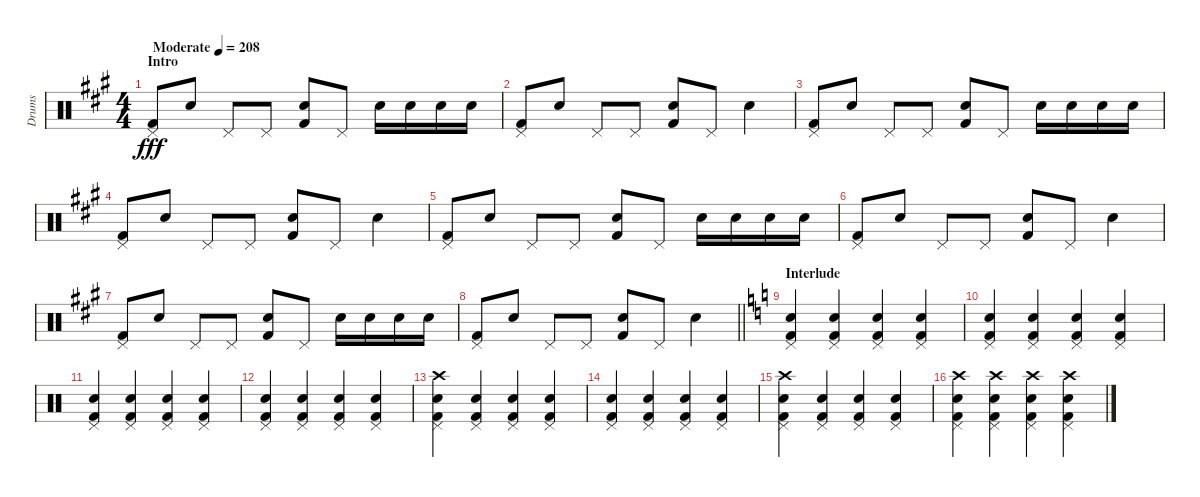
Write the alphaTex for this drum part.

\track ("Drums" "Drums") {instrument percussion}
\staff {score}
\articulation defaults
\ts (4 4)
\section ("" "Intro")
\tempo (208 "Moderate")
\clef neutral
\ks a
("Pedal Hi-Hat (hit)" "Kick (hit) 2").8{dy fff} "Snare (hit) 2".8 "Pedal Hi-Hat (hit)".8 "Pedal Hi-Hat (hit)".8 ("Snare (hit) 2" "Kick (hit) 2").8 "Pedal Hi-Hat (hit)".8 "Snare (hit) 2".16 "Snare (hit) 2".16 "Snare (hit) 2".16 "Snare (hit) 2".16 |
("Pedal Hi-Hat (hit)" "Kick (hit) 2").8 "Snare (hit) 2".8 "Pedal Hi-Hat (hit)".8 "Pedal Hi-Hat (hit)".8 ("Snare (hit) 2" "Kick (hit) 2").8 "Pedal Hi-Hat (hit)".8 "Snare (hit) 2".4 |
("Pedal Hi-Hat (hit)" "Kick (hit) 2").8 "Snare (hit) 2".8 "Pedal Hi-Hat (hit)".8 "Pedal Hi-Hat (hit)".8 ("Snare (hit) 2" "Kick (hit) 2").8 "Pedal Hi-Hat (hit)".8 "Snare (hit) 2".16 "Snare (hit) 2".16 "Snare (hit) 2".16 "Snare (hit) 2".16 |
("Pedal Hi-Hat (hit)" "Kick (hit) 2").8 "Snare (hit) 2".8 "Pedal Hi-Hat (hit)".8 "Pedal Hi-Hat (hit)".8 ("Snare (hit) 2" "Kick (hit) 2").8 "Pedal Hi-Hat (hit)".8 "Snare (hit) 2".4 |
("Pedal Hi-Hat (hit)" "Kick (hit) 2").8 "Snare (hit) 2".8 "Pedal Hi-Hat (hit)".8 "Pedal Hi-Hat (hit)".8 ("Snare (hit) 2" "Kick (hit) 2").8 "Pedal Hi-Hat (hit)".8 "Snare (hit) 2".16 "Snare (hit) 2".16 "Snare (hit) 2".16 "Snare (hit) 2".16 |
("Pedal Hi-Hat (hit)" "Kick (hit) 2").8 "Snare (hit) 2".8 "Pedal Hi-Hat (hit)".8 "Pedal Hi-Hat (hit)".8 ("Snare (hit) 2" "Kick (hit) 2").8 "Pedal Hi-Hat (hit)".8 "Snare (hit) 2".4 |
("Pedal Hi-Hat (hit)" "Kick (hit) 2").8 "Snare (hit) 2".8 "Pedal Hi-Hat (hit)".8 "Pedal Hi-Hat (hit)".8 ("Snare (hit) 2" "Kick (hit) 2").8 "Pedal Hi-Hat (hit)".8 "Snare (hit) 2".16 "Snare (hit) 2".16 "Snare (hit) 2".16 "Snare (hit) 2".16 |
\barLineRight lightlight
("Pedal Hi-Hat (hit)" "Kick (hit) 2").8 "Snare (hit) 2".8 "Pedal Hi-Hat (hit)".8 "Pedal Hi-Hat (hit)".8 ("Snare (hit) 2" "Kick (hit) 2").8 "Pedal Hi-Hat (hit)".8 "Snare (hit) 2".4 |
\section ("" "Interlude")
\ks c
("Pedal Hi-Hat (hit)" "Snare (hit) 2" "Kick (hit) 2").4 ("Pedal Hi-Hat (hit)" "Snare (hit) 2" "Kick (hit) 2").4 ("Pedal Hi-Hat (hit)" "Snare (hit) 2" "Kick (hit) 2").4 ("Pedal Hi-Hat (hit)" "Snare (hit) 2" "Kick (hit) 2").4 |
("Pedal Hi-Hat (hit)" "Snare (hit) 2" "Kick (hit) 2").4 ("Pedal Hi-Hat (hit)" "Snare (hit) 2" "Kick (hit) 2").4 ("Pedal Hi-Hat (hit)" "Snare (hit) 2" "Kick (hit) 2").4 ("Pedal Hi-Hat (hit)" "Snare (hit) 2" "Kick (hit) 2").4 |
("Pedal Hi-Hat (hit)" "Snare (hit) 2" "Kick (hit) 2").4 ("Pedal Hi-Hat (hit)" "Snare (hit) 2" "Kick (hit) 2").4 ("Pedal Hi-Hat (hit)" "Snare (hit) 2" "Kick (hit) 2").4 ("Pedal Hi-Hat (hit)" "Snare (hit) 2" "Kick (hit) 2").4 |
("Pedal Hi-Hat (hit)" "Snare (hit) 2" "Kick (hit) 2").4 ("Pedal Hi-Hat (hit)" "Snare (hit) 2" "Kick (hit) 2").4 ("Pedal Hi-Hat (hit)" "Snare (hit) 2" "Kick (hit) 2").4 ("Pedal Hi-Hat (hit)" "Snare (hit) 2" "Kick (hit) 2").4 |
("Crash high (hit)" "Pedal Hi-Hat (hit)" "Snare (hit) 2" "Kick (hit) 2").4 ("Pedal Hi-Hat (hit)" "Snare (hit) 2" "Kick (hit) 2").4 ("Pedal Hi-Hat (hit)" "Snare (hit) 2" "Kick (hit) 2").4 ("Pedal Hi-Hat (hit)" "Snare (hit) 2" "Kick (hit) 2").4 |
("Pedal Hi-Hat (hit)" "Snare (hit) 2" "Kick (hit) 2").4 ("Pedal Hi-Hat (hit)" "Snare (hit) 2" "Kick (hit) 2").4 ("Pedal Hi-Hat (hit)" "Snare (hit) 2" "Kick (hit) 2").4 ("Pedal Hi-Hat (hit)" "Snare (hit) 2" "Kick (hit) 2").4 |
("Crash high (hit)" "Pedal Hi-Hat (hit)" "Snare (hit) 2" "Kick (hit) 2").4 ("Pedal Hi-Hat (hit)" "Snare (hit) 2" "Kick (hit) 2").4 ("Pedal Hi-Hat (hit)" "Snare (hit) 2" "Kick (hit) 2").4 ("Pedal Hi-Hat (hit)" "Snare (hit) 2" "Kick (hit) 2").4 |
("Crash high (hit)" "Pedal Hi-Hat (hit)" "Snare (hit) 2" "Kick (hit) 2").4 ("Crash high (hit)" "Pedal Hi-Hat (hit)" "Snare (hit) 2" "Kick (hit) 2").4 ("Crash high (hit)" "Pedal Hi-Hat (hit)" "Snare (hit) 2" "Kick (hit) 2").4 ("Crash high (hit)" "Pedal Hi-Hat (hit)" "Snare (hit) 2" "Kick (hit) 2").4
